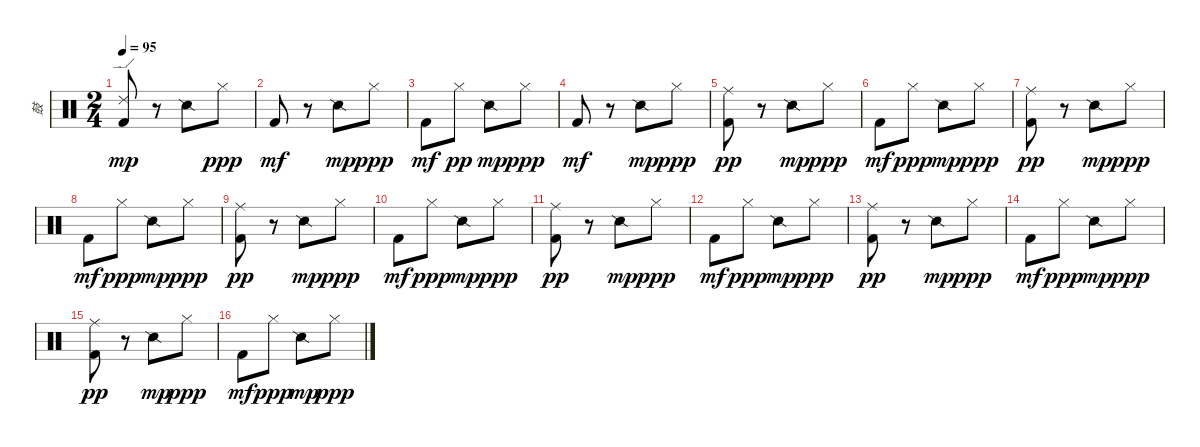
\track ("鼓" "鼓") {instrument percussion}
\staff {score}
\articulation defaults
\ts (2 4)
\tempo 95
\clef neutral
\ks c
("Kick (hit) 2" "Ride (edge) 2").8{dy mp} r.8 "Snare (side stick) 2".8 "Hi-Hat (closed)".8{dy ppp} |
"Kick (hit) 2".8{dy mf} r.8 "Snare (side stick) 2".8{dy mp} "Hi-Hat (closed)".8{dy ppp} |
"Kick (hit) 2".8{dy mf} "Hi-Hat (closed)".8{dy pp} "Snare (side stick) 2".8{dy mp} "Hi-Hat (closed)".8{dy ppp} |
"Kick (hit) 2".8{dy mf} r.8 "Snare (side stick) 2".8{dy mp} "Hi-Hat (closed)".8{dy ppp} |
("Kick (hit) 2" "Ride (middle)").8{dy pp} r.8 "Snare (side stick) 2".8{dy mp} "Hi-Hat (closed)".8{dy ppp} |
"Kick (hit) 2".8{dy mf} "Hi-Hat (closed)".8{dy ppp} "Snare (side stick) 2".8{dy mp} "Hi-Hat (closed)".8{dy ppp} |
("Kick (hit) 2" "Ride (middle)").8{dy pp} r.8 "Snare (side stick) 2".8{dy mp} "Hi-Hat (closed)".8{dy ppp} |
"Kick (hit) 2".8{dy mf} "Hi-Hat (closed)".8{dy ppp} "Snare (side stick) 2".8{dy mp} "Hi-Hat (closed)".8{dy ppp} |
("Kick (hit) 2" "Ride (middle)").8{dy pp} r.8 "Snare (side stick) 2".8{dy mp} "Hi-Hat (closed)".8{dy ppp} |
"Kick (hit) 2".8{dy mf} "Hi-Hat (closed)".8{dy ppp} "Snare (side stick) 2".8{dy mp} "Hi-Hat (closed)".8{dy ppp} |
("Kick (hit) 2" "Ride (middle)").8{dy pp} r.8 "Snare (side stick) 2".8{dy mp} "Hi-Hat (closed)".8{dy ppp} |
"Kick (hit) 2".8{dy mf} "Hi-Hat (closed)".8{dy ppp} "Snare (side stick) 2".8{dy mp} "Hi-Hat (closed)".8{dy ppp} |
("Kick (hit) 2" "Ride (middle)").8{dy pp} r.8 "Snare (side stick) 2".8{dy mp} "Hi-Hat (closed)".8{dy ppp} |
"Kick (hit) 2".8{dy mf} "Hi-Hat (closed)".8{dy ppp} "Snare (side stick) 2".8{dy mp} "Hi-Hat (closed)".8{dy ppp} |
("Kick (hit) 2" "Ride (middle)").8{dy pp} r.8 "Snare (side stick) 2".8{dy mp} "Hi-Hat (closed)".8{dy ppp} |
"Kick (hit) 2".8{dy mf} "Hi-Hat (closed)".8{dy ppp} "Snare (side stick) 2".8{dy mp} "Hi-Hat (closed)".8{dy ppp}
